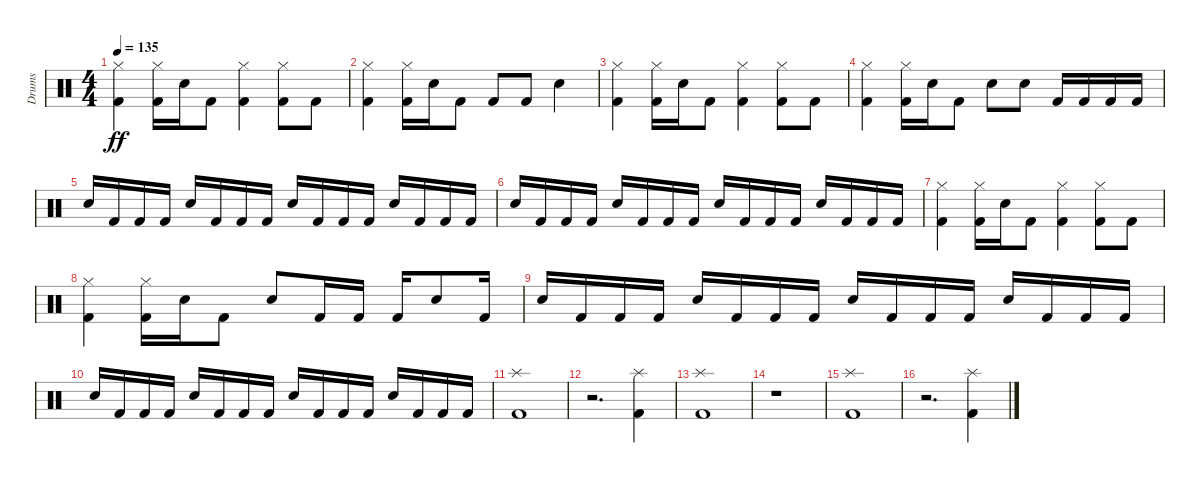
\track ("Drums" "Drums") {instrument percussion}
\staff {score}
\articulation defaults
\ts (4 4)
\tempo 135
\clef neutral
\ks c
("Kick (hit) 2" "Hi-Hat (closed)").4{dy ff} ("Kick (hit) 2" "Hi-Hat (closed)").16 "Electric Snare (hit)".16 "Kick (hit) 2".8 ("Kick (hit) 2" "Hi-Hat (closed)").4 ("Kick (hit) 2" "Hi-Hat (closed)").8 "Kick (hit) 2".8 |
("Kick (hit) 2" "Hi-Hat (closed)").4 ("Kick (hit) 2" "Hi-Hat (closed)").16 "Electric Snare (hit)".16 "Kick (hit) 2".8 "Kick (hit) 2".8 "Kick (hit) 2".8 "Electric Snare (hit)".4 |
("Kick (hit) 2" "Hi-Hat (closed)").4 ("Kick (hit) 2" "Hi-Hat (closed)").16 "Electric Snare (hit)".16 "Kick (hit) 2".8 ("Kick (hit) 2" "Hi-Hat (closed)").4 ("Kick (hit) 2" "Hi-Hat (closed)").8 "Kick (hit) 2".8 |
("Kick (hit) 2" "Hi-Hat (closed)").4 ("Kick (hit) 2" "Hi-Hat (closed)").16 "Electric Snare (hit)".16 "Kick (hit) 2".8 "Electric Snare (hit)".8 "Electric Snare (hit)".8 "Kick (hit) 2".16 "Kick (hit) 2".16 "Kick (hit) 2".16 "Kick (hit) 2".16 |
"Electric Snare (hit)".16 "Kick (hit) 2".16 "Kick (hit) 2".16 "Kick (hit) 2".16 "Electric Snare (hit)".16 "Kick (hit) 2".16 "Kick (hit) 2".16 "Kick (hit) 2".16 "Electric Snare (hit)".16 "Kick (hit) 2".16 "Kick (hit) 2".16 "Kick (hit) 2".16 "Electric Snare (hit)".16 "Kick (hit) 2".16 "Kick (hit) 2".16 "Kick (hit) 2".16 |
"Electric Snare (hit)".16 "Kick (hit) 2".16 "Kick (hit) 2".16 "Kick (hit) 2".16 "Electric Snare (hit)".16 "Kick (hit) 2".16 "Kick (hit) 2".16 "Kick (hit) 2".16 "Electric Snare (hit)".16 "Kick (hit) 2".16 "Kick (hit) 2".16 "Kick (hit) 2".16 "Electric Snare (hit)".16 "Kick (hit) 2".16 "Kick (hit) 2".16 "Kick (hit) 2".16 |
("Kick (hit) 2" "Hi-Hat (closed)").4 ("Kick (hit) 2" "Hi-Hat (closed)").16 "Electric Snare (hit)".16 "Kick (hit) 2".8 ("Kick (hit) 2" "Hi-Hat (closed)").4 ("Kick (hit) 2" "Hi-Hat (closed)").8 "Kick (hit) 2".8 |
("Kick (hit) 2" "Hi-Hat (closed)").4 ("Kick (hit) 2" "Hi-Hat (closed)").16 "Electric Snare (hit)".16 "Kick (hit) 2".8 "Electric Snare (hit)".8 "Kick (hit) 2".16 "Kick (hit) 2".16 "Kick (hit) 2".16 "Electric Snare (hit)".8 "Kick (hit) 2".16 |
"Electric Snare (hit)".16 "Kick (hit) 2".16 "Kick (hit) 2".16 "Kick (hit) 2".16 "Electric Snare (hit)".16 "Kick (hit) 2".16 "Kick (hit) 2".16 "Kick (hit) 2".16 "Electric Snare (hit)".16 "Kick (hit) 2".16 "Kick (hit) 2".16 "Kick (hit) 2".16 "Electric Snare (hit)".16 "Kick (hit) 2".16 "Kick (hit) 2".16 "Kick (hit) 2".16 |
"Electric Snare (hit)".16 "Kick (hit) 2".16 "Kick (hit) 2".16 "Kick (hit) 2".16 "Electric Snare (hit)".16 "Kick (hit) 2".16 "Kick (hit) 2".16 "Kick (hit) 2".16 "Electric Snare (hit)".16 "Kick (hit) 2".16 "Kick (hit) 2".16 "Kick (hit) 2".16 "Electric Snare (hit)".16 "Kick (hit) 2".16 "Kick (hit) 2".16 "Kick (hit) 2".16 |
("Kick (hit) 2" "Splash (hit)").1 |
r.2{d} ("Kick (hit) 2" "Splash (hit)").4 |
("Kick (hit) 2" "Splash (hit)").1 |
r.1 |
("Kick (hit) 2" "Splash (hit)").1 |
r.2{d} ("Kick (hit) 2" "Splash (hit)").4
